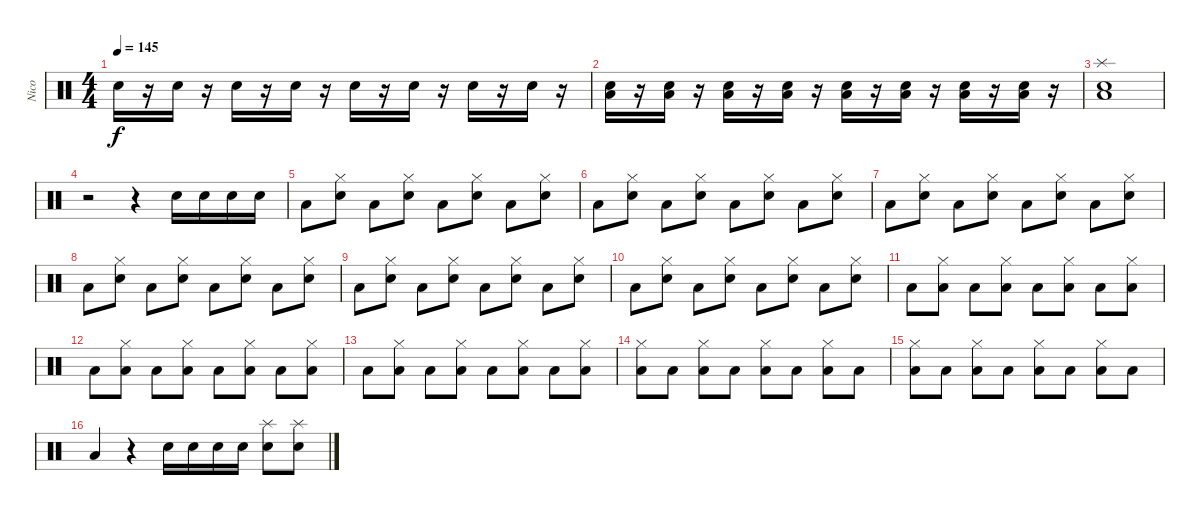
\track ("Nico" "Nico") {instrument percussion}
\staff {score}
\articulation defaults
\ts (4 4)
\tempo 145
\clef neutral
\ks c "Snare (hit) 2".16{dy f}
r.16 "Snare (hit) 2".16 r.16 "Snare (hit) 2".16 r.16 "Snare (hit) 2".16 r.16 "Snare (hit) 2".16 r.16 "Snare (hit) 2".16 r.16 "Snare (hit) 2".16 r.16 "Snare (hit) 2".16 r.16 |
("Low Floor Tom (hit)" "Snare (hit) 2").16 r.16 ("Low Floor Tom (hit)" "Snare (hit) 2").16 r.16 ("Low Floor Tom (hit)" "Snare (hit) 2").16 r.16 ("Low Floor Tom (hit)" "Snare (hit) 2").16 r.16 ("Low Floor Tom (hit)" "Snare (hit) 2").16 r.16 ("Low Floor Tom (hit)" "Snare (hit) 2").16 r.16 ("Low Floor Tom (hit)" "Snare (hit) 2").16 r.16 ("Low Floor Tom (hit)" "Snare (hit) 2").16 r.16 |
("Low Floor Tom (hit)" "Snare (hit) 2" "Splash (hit)").1 |
r.2 r.4 "Snare (hit) 2".16 "Snare (hit) 2".16 "Snare (hit) 2".16 "Snare (hit) 2".16 |
"Low Floor Tom (hit)".8 ("Snare (hit) 2" "Hi-Hat (closed)").8 "Low Floor Tom (hit)".8 ("Snare (hit) 2" "Hi-Hat (closed)").8 "Low Floor Tom (hit)".8 ("Snare (hit) 2" "Hi-Hat (closed)").8 "Low Floor Tom (hit)".8 ("Snare (hit) 2" "Hi-Hat (closed)").8 |
"Low Floor Tom (hit)".8 ("Snare (hit) 2" "Hi-Hat (closed)").8 "Low Floor Tom (hit)".8 ("Snare (hit) 2" "Hi-Hat (closed)").8 "Low Floor Tom (hit)".8 ("Snare (hit) 2" "Hi-Hat (closed)").8 "Low Floor Tom (hit)".8 ("Snare (hit) 2" "Hi-Hat (closed)").8 |
"Low Floor Tom (hit)".8 ("Snare (hit) 2" "Hi-Hat (closed)").8 "Low Floor Tom (hit)".8 ("Snare (hit) 2" "Hi-Hat (closed)").8 "Low Floor Tom (hit)".8 ("Snare (hit) 2" "Hi-Hat (closed)").8 "Low Floor Tom (hit)".8 ("Snare (hit) 2" "Hi-Hat (closed)").8 |
"Low Floor Tom (hit)".8 ("Snare (hit) 2" "Hi-Hat (closed)").8 "Low Floor Tom (hit)".8 ("Snare (hit) 2" "Hi-Hat (closed)").8 "Low Floor Tom (hit)".8 ("Snare (hit) 2" "Hi-Hat (closed)").8 "Low Floor Tom (hit)".8 ("Snare (hit) 2" "Hi-Hat (closed)").8 |
"Low Floor Tom (hit)".8 ("Snare (hit) 2" "Hi-Hat (closed)").8 "Low Floor Tom (hit)".8 ("Snare (hit) 2" "Hi-Hat (closed)").8 "Low Floor Tom (hit)".8 ("Snare (hit) 2" "Hi-Hat (closed)").8 "Low Floor Tom (hit)".8 ("Snare (hit) 2" "Hi-Hat (closed)").8 |
"Low Floor Tom (hit)".8 ("Snare (hit) 2" "Hi-Hat (closed)").8 "Low Floor Tom (hit)".8 ("Snare (hit) 2" "Hi-Hat (closed)").8 "Low Floor Tom (hit)".8 ("Snare (hit) 2" "Hi-Hat (closed)").8 "Low Floor Tom (hit)".8 ("Snare (hit) 2" "Hi-Hat (closed)").8 |
"Low Floor Tom (hit)".8 ("Low Floor Tom (hit)" "Hi-Hat (closed)").8 "Low Floor Tom (hit)".8 ("Low Floor Tom (hit)" "Hi-Hat (closed)").8 "Low Floor Tom (hit)".8 ("Low Floor Tom (hit)" "Hi-Hat (closed)").8 "Low Floor Tom (hit)".8 ("Low Floor Tom (hit)" "Hi-Hat (closed)").8 |
"Low Floor Tom (hit)".8 ("Low Floor Tom (hit)" "Hi-Hat (closed)").8 "Low Floor Tom (hit)".8 ("Low Floor Tom (hit)" "Hi-Hat (closed)").8 "Low Floor Tom (hit)".8 ("Low Floor Tom (hit)" "Hi-Hat (closed)").8 "Low Floor Tom (hit)".8 ("Low Floor Tom (hit)" "Hi-Hat (closed)").8 |
"Low Floor Tom (hit)".8 ("Low Floor Tom (hit)" "Hi-Hat (closed)").8 "Low Floor Tom (hit)".8 ("Low Floor Tom (hit)" "Hi-Hat (closed)").8 "Low Floor Tom (hit)".8 ("Low Floor Tom (hit)" "Hi-Hat (closed)").8 "Low Floor Tom (hit)".8 ("Low Floor Tom (hit)" "Hi-Hat (closed)").8 |
("Low Floor Tom (hit)" "Hi-Hat (closed)").8 "Low Floor Tom (hit)".8 ("Low Floor Tom (hit)" "Hi-Hat (closed)").8 "Low Floor Tom (hit)".8 ("Low Floor Tom (hit)" "Hi-Hat (closed)").8 "Low Floor Tom (hit)".8 ("Low Floor Tom (hit)" "Hi-Hat (closed)").8 "Low Floor Tom (hit)".8 |
("Low Floor Tom (hit)" "Hi-Hat (closed)").8 "Low Floor Tom (hit)".8 ("Low Floor Tom (hit)" "Hi-Hat (closed)").8 "Low Floor Tom (hit)".8 ("Low Floor Tom (hit)" "Hi-Hat (closed)").8 "Low Floor Tom (hit)".8 ("Low Floor Tom (hit)" "Hi-Hat (closed)").8 "Low Floor Tom (hit)".8 |
"Low Floor Tom (hit)".4 r.4 "Snare (hit) 2".16 "Snare (hit) 2".16 "Snare (hit) 2".16 "Snare (hit) 2".16 ("Snare (hit) 2" "Splash (hit)").8 ("Snare (hit) 2" "Splash (hit)").8
